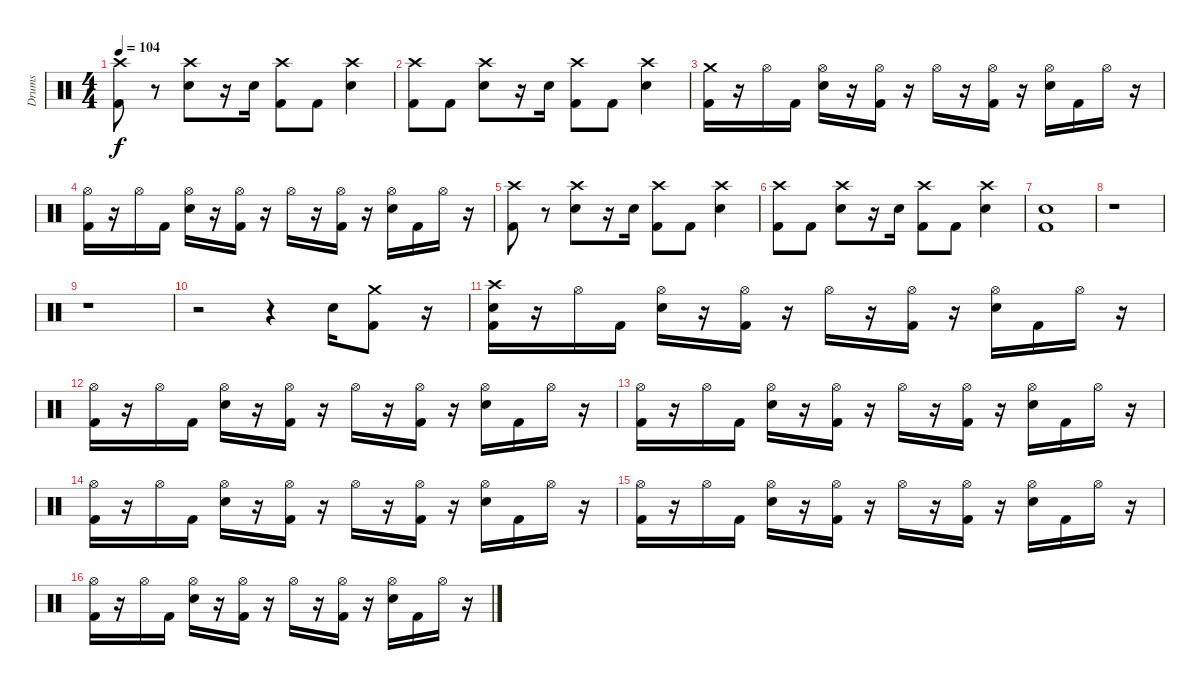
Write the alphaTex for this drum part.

\track ("Drums" "Drums") {instrument percussion}
\staff {score}
\articulation defaults
\ts (4 4)
\tempo 104
\clef neutral
\ks c
("Crash high (hit)" "Kick (hit) 2").8{dy f} r.8 ("Crash high (hit)" "Snare (hit) 2").8 r.16 "Snare (hit) 2".16 ("Crash high (hit)" "Kick (hit) 2").8 "Kick (hit) 2".8 ("Crash high (hit)" "Snare (hit) 2").4 |
("Crash high (hit)" "Kick (hit) 2").8 "Kick (hit) 2".8 ("Crash high (hit)" "Snare (hit) 2").8 r.16 "Snare (hit) 2".16 ("Crash high (hit)" "Kick (hit) 2").8 "Kick (hit) 2".8 ("Crash high (hit)" "Snare (hit) 2").4 |
("Crash medium (hit)" "Kick (hit) 2").16 r.16 "Hi-Hat (open)".16 "Kick (hit) 2".16 ("Hi-Hat (open)" "Snare (hit) 2").16 r.16 ("Hi-Hat (open)" "Kick (hit) 2").16 r.16 "Hi-Hat (open)".16 r.16 ("Hi-Hat (open)" "Kick (hit) 2").16 r.16 ("Hi-Hat (open)" "Snare (hit) 2").16 "Kick (hit) 2".16 "Hi-Hat (open)".16 r.16 |
("Hi-Hat (open)" "Kick (hit) 2").16 r.16 "Hi-Hat (open)".16 "Kick (hit) 2".16 ("Hi-Hat (open)" "Snare (hit) 2").16 r.16 ("Hi-Hat (open)" "Kick (hit) 2").16 r.16 "Hi-Hat (open)".16 r.16 ("Hi-Hat (open)" "Kick (hit) 2").16 r.16 ("Hi-Hat (open)" "Snare (hit) 2").16 "Kick (hit) 2".16 "Hi-Hat (open)".16 r.16 |
("Crash high (hit)" "Kick (hit) 2").8 r.8 ("Crash high (hit)" "Snare (hit) 2").8 r.16 "Snare (hit) 2".16 ("Crash high (hit)" "Kick (hit) 2").8 "Kick (hit) 2".8 ("Crash high (hit)" "Snare (hit) 2").4 |
("Crash high (hit)" "Kick (hit) 2").8 "Kick (hit) 2".8 ("Crash high (hit)" "Snare (hit) 2").8 r.16 "Snare (hit) 2".16 ("Crash high (hit)" "Kick (hit) 2").8 "Kick (hit) 2".8 ("Crash high (hit)" "Snare (hit) 2").4 |
("Snare (hit) 2" "Kick (hit) 2").1 |
r.1 |
r.1 |
r.2 r.4 "Snare (hit) 2".16 ("Crash medium (hit)" "Kick (hit) 2").8 r.16 |
("Crash high (hit)" "Snare (hit)" "Kick (hit) 2").16 r.16 "Hi-Hat (open)".16 "Kick (hit) 2".16 ("Hi-Hat (open)" "Snare (hit) 2").16 r.16 ("Hi-Hat (open)" "Kick (hit) 2").16 r.16 "Hi-Hat (open)".16 r.16 ("Hi-Hat (open)" "Kick (hit) 2").16 r.16 ("Hi-Hat (open)" "Snare (hit) 2").16 "Kick (hit) 2".16 "Hi-Hat (open)".16 r.16 |
("Hi-Hat (open)" "Kick (hit) 2").16 r.16 "Hi-Hat (open)".16 "Kick (hit) 2".16 ("Hi-Hat (open)" "Snare (hit) 2").16 r.16 ("Hi-Hat (open)" "Kick (hit) 2").16 r.16 "Hi-Hat (open)".16 r.16 ("Hi-Hat (open)" "Kick (hit) 2").16 r.16 ("Hi-Hat (open)" "Snare (hit) 2").16 "Kick (hit) 2".16 "Hi-Hat (open)".16 r.16 |
("Hi-Hat (open)" "Kick (hit) 2").16 r.16 "Hi-Hat (open)".16 "Kick (hit) 2".16 ("Hi-Hat (open)" "Snare (hit) 2").16 r.16 ("Hi-Hat (open)" "Kick (hit) 2").16 r.16 "Hi-Hat (open)".16 r.16 ("Hi-Hat (open)" "Kick (hit) 2").16 r.16 ("Hi-Hat (open)" "Snare (hit) 2").16 "Kick (hit) 2".16 "Hi-Hat (open)".16 r.16 |
("Hi-Hat (open)" "Kick (hit) 2").16 r.16 "Hi-Hat (open)".16 "Kick (hit) 2".16 ("Hi-Hat (open)" "Snare (hit) 2").16 r.16 ("Hi-Hat (open)" "Kick (hit) 2").16 r.16 "Hi-Hat (open)".16 r.16 ("Hi-Hat (open)" "Kick (hit) 2").16 r.16 ("Hi-Hat (open)" "Snare (hit) 2").16 "Kick (hit) 2".16 "Hi-Hat (open)".16 r.16 |
("Hi-Hat (open)" "Kick (hit) 2").16 r.16 "Hi-Hat (open)".16 "Kick (hit) 2".16 ("Hi-Hat (open)" "Snare (hit) 2").16 r.16 ("Hi-Hat (open)" "Kick (hit) 2").16 r.16 "Hi-Hat (open)".16 r.16 ("Hi-Hat (open)" "Kick (hit) 2").16 r.16 ("Hi-Hat (open)" "Snare (hit) 2").16 "Kick (hit) 2".16 "Hi-Hat (open)".16 r.16 |
("Hi-Hat (open)" "Kick (hit) 2").16 r.16 "Hi-Hat (open)".16 "Kick (hit) 2".16 ("Hi-Hat (open)" "Snare (hit) 2").16 r.16 ("Hi-Hat (open)" "Kick (hit) 2").16 r.16 "Hi-Hat (open)".16 r.16 ("Hi-Hat (open)" "Kick (hit) 2").16 r.16 ("Hi-Hat (open)" "Snare (hit) 2").16 "Kick (hit) 2".16 "Hi-Hat (open)".16 r.16
